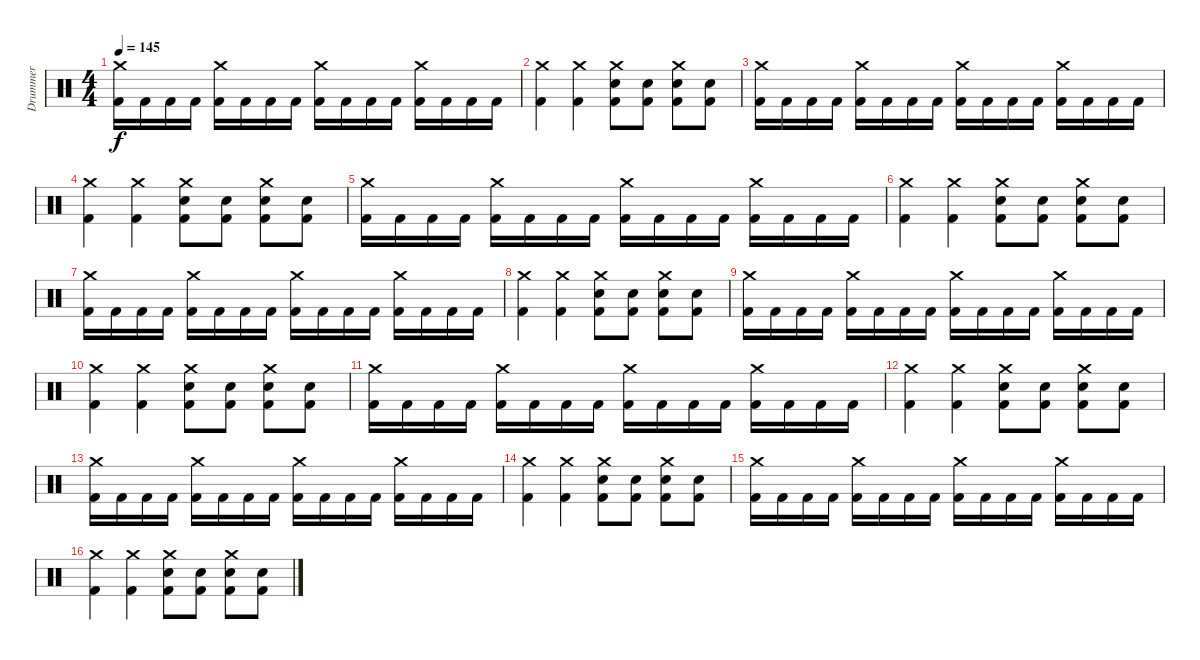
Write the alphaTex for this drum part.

\track ("Drummer" "Drummer") {instrument percussion}
\staff {score}
\articulation defaults
\ts (4 4)
\tempo 145
\clef neutral
\ks c
("Crash medium (hit)" "Kick (hit) 2").16{dy f} "Kick (hit) 2".16 "Kick (hit) 2".16 "Kick (hit) 2".16 ("Crash medium (hit)" "Kick (hit) 2").16 "Kick (hit) 2".16 "Kick (hit) 2".16 "Kick (hit) 2".16 ("Crash medium (hit)" "Kick (hit) 2").16 "Kick (hit) 2".16 "Kick (hit) 2".16 "Kick (hit) 2".16 ("Crash medium (hit)" "Kick (hit) 2").16 "Kick (hit) 2".16 "Kick (hit) 2".16 "Kick (hit) 2".16 |
("Crash medium (hit)" "Kick (hit) 2").4 ("Crash medium (hit)" "Kick (hit) 2").4 ("Crash medium (hit)" "Electric Snare (hit)" "Kick (hit) 2").8 ("Electric Snare (hit)" "Kick (hit) 2").8 ("Crash medium (hit)" "Electric Snare (hit)" "Kick (hit) 2").8 ("Electric Snare (hit)" "Kick (hit) 2").8 |
("Crash medium (hit)" "Kick (hit) 2").16 "Kick (hit) 2".16 "Kick (hit) 2".16 "Kick (hit) 2".16 ("Crash medium (hit)" "Kick (hit) 2").16 "Kick (hit) 2".16 "Kick (hit) 2".16 "Kick (hit) 2".16 ("Crash medium (hit)" "Kick (hit) 2").16 "Kick (hit) 2".16 "Kick (hit) 2".16 "Kick (hit) 2".16 ("Crash medium (hit)" "Kick (hit) 2").16 "Kick (hit) 2".16 "Kick (hit) 2".16 "Kick (hit) 2".16 |
("Crash medium (hit)" "Kick (hit) 2").4 ("Crash medium (hit)" "Kick (hit) 2").4 ("Crash medium (hit)" "Electric Snare (hit)" "Kick (hit) 2").8 ("Electric Snare (hit)" "Kick (hit) 2").8 ("Crash medium (hit)" "Electric Snare (hit)" "Kick (hit) 2").8 ("Electric Snare (hit)" "Kick (hit) 2").8 |
("Crash medium (hit)" "Kick (hit) 2").16 "Kick (hit) 2".16 "Kick (hit) 2".16 "Kick (hit) 2".16 ("Crash medium (hit)" "Kick (hit) 2").16 "Kick (hit) 2".16 "Kick (hit) 2".16 "Kick (hit) 2".16 ("Crash medium (hit)" "Kick (hit) 2").16 "Kick (hit) 2".16 "Kick (hit) 2".16 "Kick (hit) 2".16 ("Crash medium (hit)" "Kick (hit) 2").16 "Kick (hit) 2".16 "Kick (hit) 2".16 "Kick (hit) 2".16 |
("Crash medium (hit)" "Kick (hit) 2").4 ("Crash medium (hit)" "Kick (hit) 2").4 ("Crash medium (hit)" "Electric Snare (hit)" "Kick (hit) 2").8 ("Electric Snare (hit)" "Kick (hit) 2").8 ("Crash medium (hit)" "Electric Snare (hit)" "Kick (hit) 2").8 ("Electric Snare (hit)" "Kick (hit) 2").8 |
("Crash medium (hit)" "Kick (hit) 2").16 "Kick (hit) 2".16 "Kick (hit) 2".16 "Kick (hit) 2".16 ("Crash medium (hit)" "Kick (hit) 2").16 "Kick (hit) 2".16 "Kick (hit) 2".16 "Kick (hit) 2".16 ("Crash medium (hit)" "Kick (hit) 2").16 "Kick (hit) 2".16 "Kick (hit) 2".16 "Kick (hit) 2".16 ("Crash medium (hit)" "Kick (hit) 2").16 "Kick (hit) 2".16 "Kick (hit) 2".16 "Kick (hit) 2".16 |
("Crash medium (hit)" "Kick (hit) 2").4 ("Crash medium (hit)" "Kick (hit) 2").4 ("Crash medium (hit)" "Electric Snare (hit)" "Kick (hit) 2").8 ("Electric Snare (hit)" "Kick (hit) 2").8 ("Crash medium (hit)" "Electric Snare (hit)" "Kick (hit) 2").8 ("Electric Snare (hit)" "Kick (hit) 2").8 |
("Crash medium (hit)" "Kick (hit) 2").16 "Kick (hit) 2".16 "Kick (hit) 2".16 "Kick (hit) 2".16 ("Crash medium (hit)" "Kick (hit) 2").16 "Kick (hit) 2".16 "Kick (hit) 2".16 "Kick (hit) 2".16 ("Crash medium (hit)" "Kick (hit) 2").16 "Kick (hit) 2".16 "Kick (hit) 2".16 "Kick (hit) 2".16 ("Crash medium (hit)" "Kick (hit) 2").16 "Kick (hit) 2".16 "Kick (hit) 2".16 "Kick (hit) 2".16 |
("Crash medium (hit)" "Kick (hit) 2").4 ("Crash medium (hit)" "Kick (hit) 2").4 ("Crash medium (hit)" "Electric Snare (hit)" "Kick (hit) 2").8 ("Electric Snare (hit)" "Kick (hit) 2").8 ("Crash medium (hit)" "Electric Snare (hit)" "Kick (hit) 2").8 ("Electric Snare (hit)" "Kick (hit) 2").8 |
("Crash medium (hit)" "Kick (hit) 2").16 "Kick (hit) 2".16 "Kick (hit) 2".16 "Kick (hit) 2".16 ("Crash medium (hit)" "Kick (hit) 2").16 "Kick (hit) 2".16 "Kick (hit) 2".16 "Kick (hit) 2".16 ("Crash medium (hit)" "Kick (hit) 2").16 "Kick (hit) 2".16 "Kick (hit) 2".16 "Kick (hit) 2".16 ("Crash medium (hit)" "Kick (hit) 2").16 "Kick (hit) 2".16 "Kick (hit) 2".16 "Kick (hit) 2".16 |
("Crash medium (hit)" "Kick (hit) 2").4 ("Crash medium (hit)" "Kick (hit) 2").4 ("Crash medium (hit)" "Electric Snare (hit)" "Kick (hit) 2").8 ("Electric Snare (hit)" "Kick (hit) 2").8 ("Crash medium (hit)" "Electric Snare (hit)" "Kick (hit) 2").8 ("Electric Snare (hit)" "Kick (hit) 2").8 |
("Crash medium (hit)" "Kick (hit) 2").16 "Kick (hit) 2".16 "Kick (hit) 2".16 "Kick (hit) 2".16 ("Crash medium (hit)" "Kick (hit) 2").16 "Kick (hit) 2".16 "Kick (hit) 2".16 "Kick (hit) 2".16 ("Crash medium (hit)" "Kick (hit) 2").16 "Kick (hit) 2".16 "Kick (hit) 2".16 "Kick (hit) 2".16 ("Crash medium (hit)" "Kick (hit) 2").16 "Kick (hit) 2".16 "Kick (hit) 2".16 "Kick (hit) 2".16 |
("Crash medium (hit)" "Kick (hit) 2").4 ("Crash medium (hit)" "Kick (hit) 2").4 ("Crash medium (hit)" "Electric Snare (hit)" "Kick (hit) 2").8 ("Electric Snare (hit)" "Kick (hit) 2").8 ("Crash medium (hit)" "Electric Snare (hit)" "Kick (hit) 2").8 ("Electric Snare (hit)" "Kick (hit) 2").8 |
("Crash medium (hit)" "Kick (hit) 2").16 "Kick (hit) 2".16 "Kick (hit) 2".16 "Kick (hit) 2".16 ("Crash medium (hit)" "Kick (hit) 2").16 "Kick (hit) 2".16 "Kick (hit) 2".16 "Kick (hit) 2".16 ("Crash medium (hit)" "Kick (hit) 2").16 "Kick (hit) 2".16 "Kick (hit) 2".16 "Kick (hit) 2".16 ("Crash medium (hit)" "Kick (hit) 2").16 "Kick (hit) 2".16 "Kick (hit) 2".16 "Kick (hit) 2".16 |
("Crash medium (hit)" "Kick (hit) 2").4 ("Crash medium (hit)" "Kick (hit) 2").4 ("Crash medium (hit)" "Electric Snare (hit)" "Kick (hit) 2").8 ("Electric Snare (hit)" "Kick (hit) 2").8 ("Crash medium (hit)" "Electric Snare (hit)" "Kick (hit) 2").8 ("Electric Snare (hit)" "Kick (hit) 2").8
